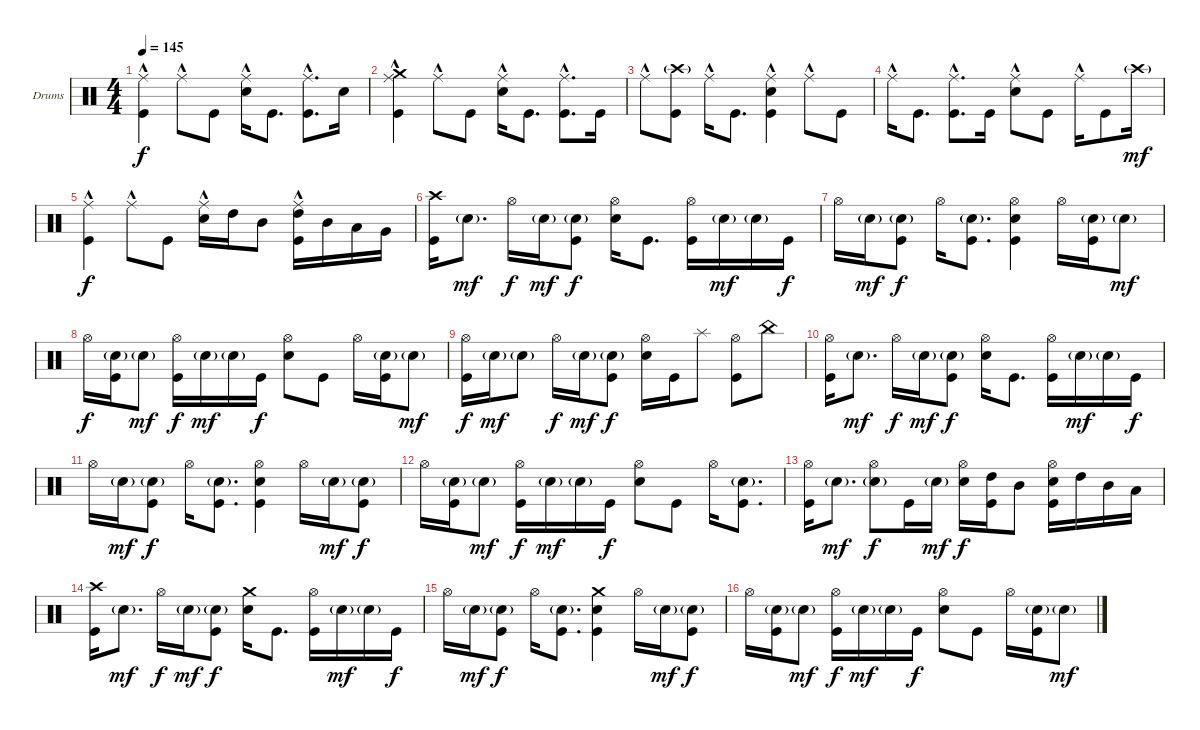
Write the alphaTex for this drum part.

\bracketExtendMode groupsimilarinstruments
\firstSystemTrackNameOrientation horizontal
\otherSystemsTrackNameOrientation horizontal
\track ("Drumkit" "Drums") {instrument percussion}
\staff {score}
\articulation defaults
\ts (4 4)
\tempo 145
\clef neutral
\ks c
("Ride (middle)"{hac} "Kick (hit)").4{dy f} "Ride (middle)"{hac}.8 "Kick (hit)".8 ("Ride (middle)"{hac} "Snare (hit) 2").16 "Kick (hit)".8{d} ("Ride (middle)"{hac} "Kick (hit)").8{d} "Snare (hit) 2".16 |
("Ride (middle)"{hac} "Crash medium (hit)" "Kick (hit)").4 "Ride (middle)"{hac}.8 "Kick (hit)".8 ("Ride (middle)"{hac} "Snare (hit) 2").16 "Kick (hit)".8{d} ("Ride (middle)"{hac} "Kick (hit)").8{d} "Kick (hit)".16 |
"Ride (middle)"{hac}.8 ("Crash high (hit)"{g} "Kick (hit)").8 "Ride (middle)"{hac}.16 "Kick (hit)".8{d} ("Ride (middle)"{hac} "Snare (hit) 2" "Kick (hit)").4 "Ride (middle)"{hac}.8 "Kick (hit)".8 |
"Ride (middle)"{hac}.16 "Kick (hit)".8{d} ("Ride (middle)"{hac} "Kick (hit)").8{d} "Kick (hit)".16 ("Ride (middle)"{hac} "Snare (hit) 2").8 "Kick (hit)".8 "Ride (middle)"{hac}.16 "Kick (hit)".8 "Crash high (hit)"{g}.16{dy mf} |
("Ride (middle)"{hac} "Kick (hit)").4{dy f} "Ride (middle)"{hac}.8 "Kick (hit)".8 ("Ride (middle)"{hac} "Snare (hit) 2").16 "High Tom (hit)".16 "Mid Tom (hit)".8 ("Ride (middle)"{hac} "High Tom (hit)" "Kick (hit)").16 "Mid Tom (hit)".16 "Low Tom (hit)".16 "Very Low Tom (hit)".16 |
("Crash high (hit)" "Kick (hit)").16 "Snare (hit) 2"{g}.8{d dy mf} "Hi-Hat (open)".16{dy f} "Snare (hit) 2"{g}.16{dy mf} ("Snare (hit) 2"{g} "Kick (hit)").8{dy f} ("Hi-Hat (open)" "Snare (hit) 2").16 "Kick (hit)".8{d} ("Hi-Hat (open)" "Kick (hit)").16 "Snare (hit) 2"{g}.16{dy mf} "Snare (hit) 2"{g}.16 "Kick (hit)".16{dy f} |
"Hi-Hat (open)".16 "Snare (hit) 2"{g}.16{dy mf} ("Snare (hit) 2"{g} "Kick (hit)").8{dy f} "Hi-Hat (open)".16 ("Snare (hit) 2"{g} "Kick (hit)").8{d} ("Hi-Hat (open)" "Snare (hit) 2" "Kick (hit)").4 "Hi-Hat (open)".16 ("Snare (hit) 2"{g} "Kick (hit)").16 "Snare (hit) 2"{g}.8{dy mf} |
"Hi-Hat (open)".16{dy f} ("Snare (hit) 2"{g} "Kick (hit)").16 "Snare (hit) 2"{g}.8{dy mf} ("Hi-Hat (open)" "Kick (hit)").16{dy f} "Snare (hit) 2"{g}.16{dy mf} "Snare (hit) 2"{g}.16 "Kick (hit)".16{dy f} ("Hi-Hat (open)" "Snare (hit) 2").8 "Kick (hit)".8 "Hi-Hat (open)".16 ("Snare (hit) 2"{g} "Kick (hit)").16 "Snare (hit) 2"{g}.8{dy mf} |
("Hi-Hat (open)" "Kick (hit)").16{dy f} "Snare (hit) 2"{g}.16{dy mf} "Snare (hit) 2"{g}.8 "Hi-Hat (open)".16{dy f} "Snare (hit) 2"{g}.16{dy mf} ("Snare (hit) 2"{g} "Kick (hit)").8{dy f} ("Hi-Hat (open)" "Snare (hit) 2").16 "Kick (hit)".16 "Splash (hit)".8 ("Hi-Hat (open)" "Kick (hit)").8 "China (hit)".8 |
("Hi-Hat (open)" "Kick (hit)").16 "Snare (hit) 2"{g}.8{d dy mf} "Hi-Hat (open)".16{dy f} "Snare (hit) 2"{g}.16{dy mf} ("Snare (hit) 2"{g} "Kick (hit)").8{dy f} ("Hi-Hat (open)" "Snare (hit) 2").16 "Kick (hit)".8{d} ("Hi-Hat (open)" "Kick (hit)").16 "Snare (hit) 2"{g}.16{dy mf} "Snare (hit) 2"{g}.16 "Kick (hit)".16{dy f} |
"Hi-Hat (open)".16 "Snare (hit) 2"{g}.16{dy mf} ("Snare (hit) 2"{g} "Kick (hit)").8{dy f} "Hi-Hat (open)".16 ("Snare (hit) 2"{g} "Kick (hit)").8{d} ("Hi-Hat (open)" "Snare (hit) 2" "Kick (hit)").4 "Hi-Hat (open)".16 "Snare (hit) 2"{g}.16{dy mf} ("Snare (hit) 2"{g} "Kick (hit)").8{dy f} |
"Hi-Hat (open)".16 ("Snare (hit) 2"{g} "Kick (hit)").16 "Snare (hit) 2"{g}.8{dy mf} ("Hi-Hat (open)" "Kick (hit)").16{dy f} "Snare (hit) 2"{g}.16{dy mf} "Snare (hit) 2"{g}.16 "Kick (hit)".16{dy f} ("Hi-Hat (open)" "Snare (hit) 2").8 "Kick (hit)".8 "Hi-Hat (open)".16 ("Snare (hit) 2"{g} "Kick (hit)").8{d} |
("Hi-Hat (open)" "Kick (hit)").16 "Snare (hit) 2"{g}.8{d dy mf} ("Hi-Hat (open)" "Snare (hit) 2"{g}).8{dy f} "Kick (hit)".16 "Snare (hit) 2"{g}.16{dy mf} ("Hi-Hat (open)" "Snare (hit) 2").16{dy f} ("High Tom (hit)" "Kick (hit)").16 "Mid Tom (hit)".8 ("Hi-Hat (open)" "Snare (hit) 2" "Kick (hit)").16 "High Tom (hit)".16 "Mid Tom (hit)".16 "Low Tom (hit)".16 |
("Crash high (hit)" "Kick (hit)").16 "Snare (hit) 2"{g}.8{d dy mf} "Hi-Hat (open)".16{dy f} "Snare (hit) 2"{g}.16{dy mf} ("Snare (hit) 2"{g} "Kick (hit)").8{dy f} ("Crash medium (hit)" "Snare (hit) 2").16 "Kick (hit)".8{d} ("Hi-Hat (open)" "Kick (hit)").16 "Snare (hit) 2"{g}.16{dy mf} "Snare (hit) 2"{g}.16 "Kick (hit)".16{dy f} |
"Hi-Hat (open)".16 "Snare (hit) 2"{g}.16{dy mf} ("Snare (hit) 2"{g} "Kick (hit)").8{dy f} "Hi-Hat (open)".16 ("Snare (hit) 2"{g} "Kick (hit)").8{d} ("Crash medium (hit)" "Snare (hit) 2" "Kick (hit)").4 "Hi-Hat (open)".16 "Snare (hit) 2"{g}.16{dy mf} ("Snare (hit) 2"{g} "Kick (hit)").8{dy f} |
"Hi-Hat (open)".16 ("Snare (hit) 2"{g} "Kick (hit)").16 "Snare (hit) 2"{g}.8{dy mf} ("Hi-Hat (open)" "Kick (hit)").16{dy f} "Snare (hit) 2"{g}.16{dy mf} "Snare (hit) 2"{g}.16 "Kick (hit)".16{dy f} ("Hi-Hat (open)" "Snare (hit) 2").8 "Kick (hit)".8 "Hi-Hat (open)".16 ("Snare (hit) 2"{g} "Kick (hit)").16 "Snare (hit) 2"{g}.8{dy mf}
